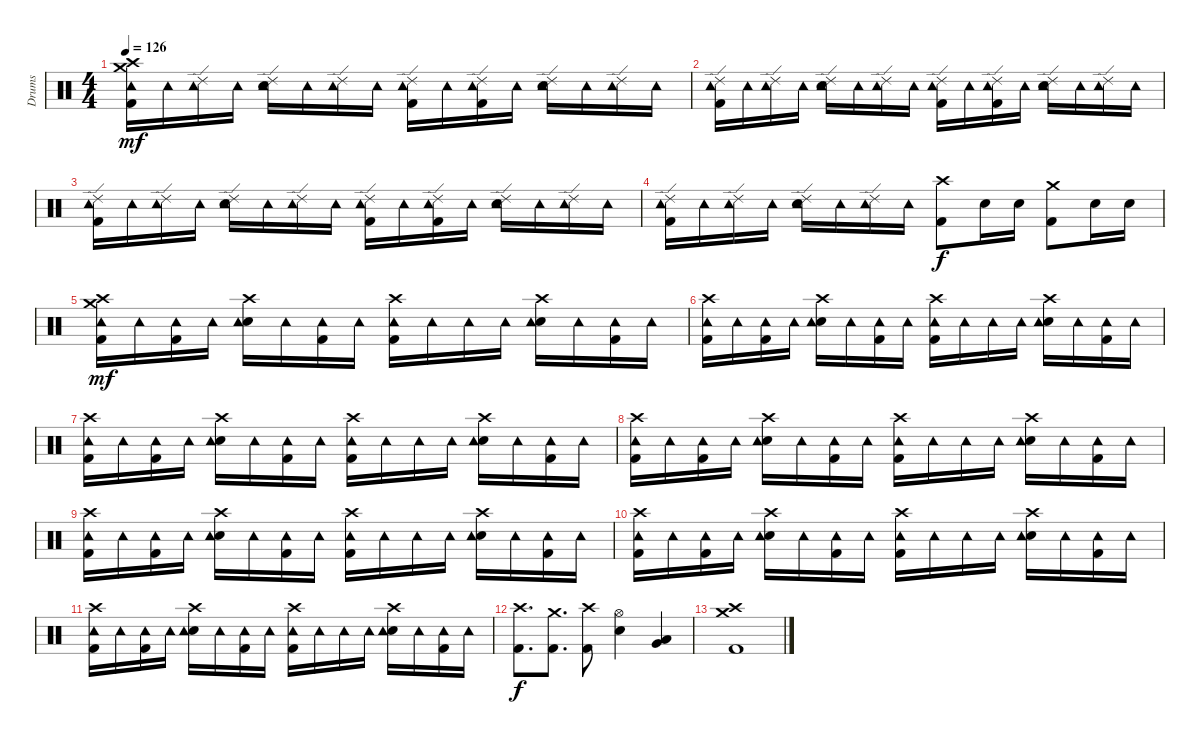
\track ("Drums" "Drums") {instrument percussion}
\staff {score}
\articulation defaults
\ts (4 4)
\tempo 126
\clef neutral
\ks c
("Crash high (hit)" "Crash medium (hit)" "Tambourine (hit)" "Kick (hit) 2").16{dy mf} "Tambourine (hit)".16 ("Ride (edge) 2" "Tambourine (hit)").16 "Tambourine (hit)".16 ("Ride (edge) 2" "Electric Snare (hit)" "Tambourine (hit)").16 "Tambourine (hit)".16 ("Ride (edge) 2" "Tambourine (hit)").16 "Tambourine (hit)".16 ("Ride (edge) 2" "Tambourine (hit)" "Kick (hit) 2").16 "Tambourine (hit)".16 ("Ride (edge) 2" "Tambourine (hit)" "Kick (hit) 2").16 "Tambourine (hit)".16 ("Ride (edge) 2" "Electric Snare (hit)" "Tambourine (hit)").16 "Tambourine (hit)".16 ("Ride (edge) 2" "Tambourine (hit)").16 "Tambourine (hit)".16 |
("Ride (edge) 2" "Tambourine (hit)" "Kick (hit) 2").16 "Tambourine (hit)".16 ("Ride (edge) 2" "Tambourine (hit)").16 "Tambourine (hit)".16 ("Ride (edge) 2" "Electric Snare (hit)" "Tambourine (hit)").16 "Tambourine (hit)".16 ("Ride (edge) 2" "Tambourine (hit)").16 "Tambourine (hit)".16 ("Ride (edge) 2" "Tambourine (hit)" "Kick (hit) 2").16 "Tambourine (hit)".16 ("Ride (edge) 2" "Tambourine (hit)" "Kick (hit) 2").16 "Tambourine (hit)".16 ("Ride (edge) 2" "Electric Snare (hit)" "Tambourine (hit)").16 "Tambourine (hit)".16 ("Ride (edge) 2" "Tambourine (hit)").16 "Tambourine (hit)".16 |
("Ride (edge) 2" "Tambourine (hit)" "Kick (hit) 2").16 "Tambourine (hit)".16 ("Ride (edge) 2" "Tambourine (hit)").16 "Tambourine (hit)".16 ("Ride (edge) 2" "Electric Snare (hit)" "Tambourine (hit)").16 "Tambourine (hit)".16 ("Ride (edge) 2" "Tambourine (hit)").16 "Tambourine (hit)".16 ("Ride (edge) 2" "Tambourine (hit)" "Kick (hit) 2").16 "Tambourine (hit)".16 ("Ride (edge) 2" "Tambourine (hit)" "Kick (hit) 2").16 "Tambourine (hit)".16 ("Ride (edge) 2" "Electric Snare (hit)" "Tambourine (hit)").16 "Tambourine (hit)".16 ("Ride (edge) 2" "Tambourine (hit)").16 "Tambourine (hit)".16 |
("Ride (edge) 2" "Tambourine (hit)" "Kick (hit) 2").16 "Tambourine (hit)".16 ("Ride (edge) 2" "Tambourine (hit)").16 "Tambourine (hit)".16 ("Ride (edge) 2" "Electric Snare (hit)" "Tambourine (hit)").16 "Tambourine (hit)".16 ("Ride (edge) 2" "Tambourine (hit)").16 "Tambourine (hit)".16 ("Crash high (hit)" "Kick (hit) 2").8{dy f} "Electric Snare (hit)".16 "Electric Snare (hit)".16 ("Crash medium (hit)" "Kick (hit) 2").8 "Electric Snare (hit)".16 "Electric Snare (hit)".16 |
("Crash high (hit)" "Crash medium (hit)" "Tambourine (hit)" "Kick (hit) 2").16{dy mf} "Tambourine (hit)".16 ("Tambourine (hit)" "Kick (hit) 2").16 "Tambourine (hit)".16 ("Crash high (hit)" "Electric Snare (hit)" "Tambourine (hit)").16 "Tambourine (hit)".16 ("Tambourine (hit)" "Kick (hit) 2").16 "Tambourine (hit)".16 ("Crash high (hit)" "Tambourine (hit)" "Kick (hit) 2").16 "Tambourine (hit)".16 "Tambourine (hit)".16 "Tambourine (hit)".16 ("Crash high (hit)" "Electric Snare (hit)" "Tambourine (hit)").16 "Tambourine (hit)".16 ("Tambourine (hit)" "Kick (hit) 2").16 "Tambourine (hit)".16 |
("Crash high (hit)" "Tambourine (hit)" "Kick (hit) 2").16 "Tambourine (hit)".16 ("Tambourine (hit)" "Kick (hit) 2").16 "Tambourine (hit)".16 ("Crash high (hit)" "Electric Snare (hit)" "Tambourine (hit)").16 "Tambourine (hit)".16 ("Tambourine (hit)" "Kick (hit) 2").16 "Tambourine (hit)".16 ("Crash high (hit)" "Tambourine (hit)" "Kick (hit) 2").16 "Tambourine (hit)".16 "Tambourine (hit)".16 "Tambourine (hit)".16 ("Crash high (hit)" "Electric Snare (hit)" "Tambourine (hit)").16 "Tambourine (hit)".16 ("Tambourine (hit)" "Kick (hit) 2").16 "Tambourine (hit)".16 |
("Crash high (hit)" "Tambourine (hit)" "Kick (hit) 2").16 "Tambourine (hit)".16 ("Tambourine (hit)" "Kick (hit) 2").16 "Tambourine (hit)".16 ("Crash high (hit)" "Electric Snare (hit)" "Tambourine (hit)").16 "Tambourine (hit)".16 ("Tambourine (hit)" "Kick (hit) 2").16 "Tambourine (hit)".16 ("Crash high (hit)" "Tambourine (hit)" "Kick (hit) 2").16 "Tambourine (hit)".16 "Tambourine (hit)".16 "Tambourine (hit)".16 ("Crash high (hit)" "Electric Snare (hit)" "Tambourine (hit)").16 "Tambourine (hit)".16 ("Tambourine (hit)" "Kick (hit) 2").16 "Tambourine (hit)".16 |
("Crash high (hit)" "Tambourine (hit)" "Kick (hit) 2").16 "Tambourine (hit)".16 ("Tambourine (hit)" "Kick (hit) 2").16 "Tambourine (hit)".16 ("Crash high (hit)" "Electric Snare (hit)" "Tambourine (hit)").16 "Tambourine (hit)".16 ("Tambourine (hit)" "Kick (hit) 2").16 "Tambourine (hit)".16 ("Crash high (hit)" "Tambourine (hit)" "Kick (hit) 2").16 "Tambourine (hit)".16 "Tambourine (hit)".16 "Tambourine (hit)".16 ("Crash high (hit)" "Electric Snare (hit)" "Tambourine (hit)").16 "Tambourine (hit)".16 ("Tambourine (hit)" "Kick (hit) 2").16 "Tambourine (hit)".16 |
("Crash high (hit)" "Tambourine (hit)" "Kick (hit) 2").16 "Tambourine (hit)".16 ("Tambourine (hit)" "Kick (hit) 2").16 "Tambourine (hit)".16 ("Crash high (hit)" "Electric Snare (hit)" "Tambourine (hit)").16 "Tambourine (hit)".16 ("Tambourine (hit)" "Kick (hit) 2").16 "Tambourine (hit)".16 ("Crash high (hit)" "Tambourine (hit)" "Kick (hit) 2").16 "Tambourine (hit)".16 "Tambourine (hit)".16 "Tambourine (hit)".16 ("Crash high (hit)" "Electric Snare (hit)" "Tambourine (hit)").16 "Tambourine (hit)".16 ("Tambourine (hit)" "Kick (hit) 2").16 "Tambourine (hit)".16 |
("Crash high (hit)" "Tambourine (hit)" "Kick (hit) 2").16 "Tambourine (hit)".16 ("Tambourine (hit)" "Kick (hit) 2").16 "Tambourine (hit)".16 ("Crash high (hit)" "Electric Snare (hit)" "Tambourine (hit)").16 "Tambourine (hit)".16 ("Tambourine (hit)" "Kick (hit) 2").16 "Tambourine (hit)".16 ("Crash high (hit)" "Tambourine (hit)" "Kick (hit) 2").16 "Tambourine (hit)".16 "Tambourine (hit)".16 "Tambourine (hit)".16 ("Crash high (hit)" "Electric Snare (hit)" "Tambourine (hit)").16 "Tambourine (hit)".16 ("Tambourine (hit)" "Kick (hit) 2").16 "Tambourine (hit)".16 |
("Crash high (hit)" "Tambourine (hit)" "Kick (hit) 2").16 "Tambourine (hit)".16 ("Tambourine (hit)" "Kick (hit) 2").16 "Tambourine (hit)".16 ("Crash high (hit)" "Electric Snare (hit)" "Tambourine (hit)").16 "Tambourine (hit)".16 ("Tambourine (hit)" "Kick (hit) 2").16 "Tambourine (hit)".16 ("Crash high (hit)" "Tambourine (hit)" "Kick (hit) 2").16 "Tambourine (hit)".16 "Tambourine (hit)".16 "Tambourine (hit)".16 ("Crash high (hit)" "Electric Snare (hit)" "Tambourine (hit)").16 "Tambourine (hit)".16 ("Tambourine (hit)" "Kick (hit) 2").16 "Tambourine (hit)".16 |
("Crash high (hit)" "Kick (hit) 2").8{d dy f} ("Crash medium (hit)" "Kick (hit) 2").8{d} ("Crash high (hit)" "Kick (hit) 2").8 ("Hi-Hat (open)" "Electric Snare (hit)").4 ("Low Tom (hit)" "Very Low Tom (hit)").4 |
("Crash high (hit)" "Crash medium (hit)" "Kick (hit) 2").1
